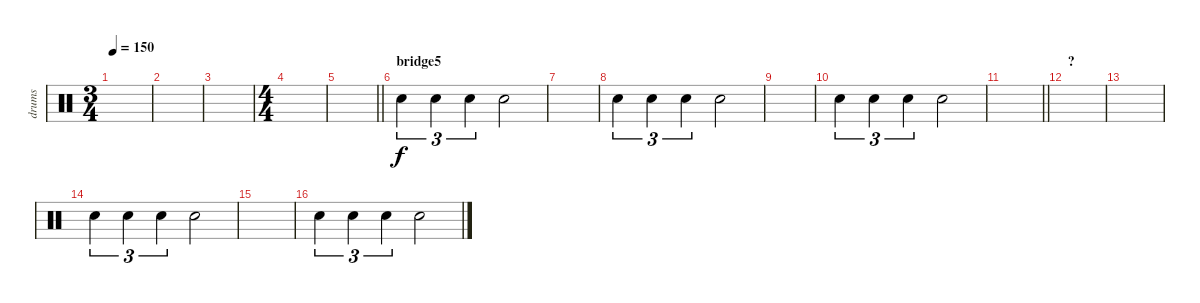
\track ("drums" "drums") {instrument percussion}
\staff {score}
\articulation defaults
\ts (3 4)
\tempo 150
\clef neutral
\ks c
|
|
|
\ts (4 4)
|
\barLineRight lightlight
|
\section ("" "bridge5")
"Snare (hit) 2".4{tu (3 2)} "Snare (hit) 2".4{tu (3 2)} "Snare (hit) 2".4{tu (3 2)} "Snare (hit) 2".2 |
|
"Snare (hit) 2".4{tu (3 2)} "Snare (hit) 2".4{tu (3 2)} "Snare (hit) 2".4{tu (3 2)} "Snare (hit) 2".2 |
|
"Snare (hit) 2".4{tu (3 2)} "Snare (hit) 2".4{tu (3 2)} "Snare (hit) 2".4{tu (3 2)} "Snare (hit) 2".2 |
\barLineRight lightlight
|
\section ("" "?")
|
|
"Snare (hit) 2".4{tu (3 2)} "Snare (hit) 2".4{tu (3 2)} "Snare (hit) 2".4{tu (3 2)} "Snare (hit) 2".2 |
|
"Snare (hit) 2".4{tu (3 2)} "Snare (hit) 2".4{tu (3 2)} "Snare (hit) 2".4{tu (3 2)} "Snare (hit) 2".2
